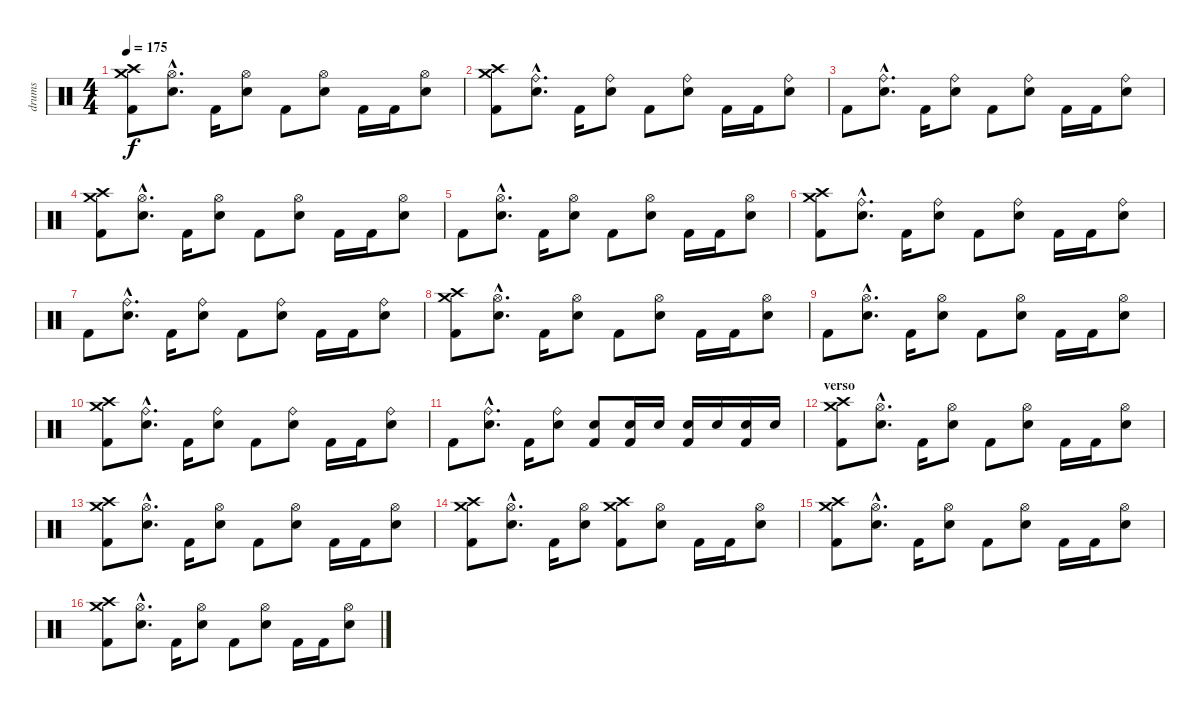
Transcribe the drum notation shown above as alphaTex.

\track ("drums" "drums") {instrument percussion}
\staff {score}
\articulation defaults
\ts (4 4)
\tempo 175
\clef neutral
\ks c
("Kick (hit) 2" "Crash high (hit)" "Crash medium (hit)").8{dy f} ("Hi-Hat (open)"{hac} "Electric Snare (hit)"{hac}).8{d} "Kick (hit) 2".16 ("Hi-Hat (open)" "Electric Snare (hit)").8 "Kick (hit) 2".8 ("Hi-Hat (open)" "Electric Snare (hit)").8 "Kick (hit) 2".16 "Kick (hit) 2".16 ("Hi-Hat (open)" "Electric Snare (hit)").8 |
("Kick (hit) 2" "Crash high (hit)" "Crash medium (hit)").8 ("Ride (bell)"{hac} "Electric Snare (hit)"{hac}).8{d} "Kick (hit) 2".16 ("Ride (bell)" "Electric Snare (hit)").8 "Kick (hit) 2".8 ("Ride (bell)" "Electric Snare (hit)").8 "Kick (hit) 2".16 "Kick (hit) 2".16 ("Ride (bell)" "Electric Snare (hit)").8 |
"Kick (hit) 2".8 ("Ride (bell)"{hac} "Electric Snare (hit)"{hac}).8{d} "Kick (hit) 2".16 ("Ride (bell)" "Electric Snare (hit)").8 "Kick (hit) 2".8 ("Ride (bell)" "Electric Snare (hit)").8 "Kick (hit) 2".16 "Kick (hit) 2".16 ("Ride (bell)" "Electric Snare (hit)").8 |
("Kick (hit) 2" "Crash high (hit)" "Crash medium (hit)").8 ("Hi-Hat (open)"{hac} "Electric Snare (hit)"{hac}).8{d} "Kick (hit) 2".16 ("Hi-Hat (open)" "Electric Snare (hit)").8 "Kick (hit) 2".8 ("Hi-Hat (open)" "Electric Snare (hit)").8 "Kick (hit) 2".16 "Kick (hit) 2".16 ("Hi-Hat (open)" "Electric Snare (hit)").8 |
"Kick (hit) 2".8 ("Hi-Hat (open)"{hac} "Electric Snare (hit)"{hac}).8{d} "Kick (hit) 2".16 ("Hi-Hat (open)" "Electric Snare (hit)").8 "Kick (hit) 2".8 ("Hi-Hat (open)" "Electric Snare (hit)").8 "Kick (hit) 2".16 "Kick (hit) 2".16 ("Hi-Hat (open)" "Electric Snare (hit)").8 |
("Kick (hit) 2" "Crash high (hit)" "Crash medium (hit)").8 ("Ride (bell)"{hac} "Electric Snare (hit)"{hac}).8{d} "Kick (hit) 2".16 ("Ride (bell)" "Electric Snare (hit)").8 "Kick (hit) 2".8 ("Ride (bell)" "Electric Snare (hit)").8 "Kick (hit) 2".16 "Kick (hit) 2".16 ("Ride (bell)" "Electric Snare (hit)").8 |
"Kick (hit) 2".8 ("Ride (bell)"{hac} "Electric Snare (hit)"{hac}).8{d} "Kick (hit) 2".16 ("Ride (bell)" "Electric Snare (hit)").8 "Kick (hit) 2".8 ("Ride (bell)" "Electric Snare (hit)").8 "Kick (hit) 2".16 "Kick (hit) 2".16 ("Ride (bell)" "Electric Snare (hit)").8 |
("Kick (hit) 2" "Crash high (hit)" "Crash medium (hit)").8 ("Hi-Hat (open)"{hac} "Electric Snare (hit)"{hac}).8{d} "Kick (hit) 2".16 ("Hi-Hat (open)" "Electric Snare (hit)").8 "Kick (hit) 2".8 ("Hi-Hat (open)" "Electric Snare (hit)").8 "Kick (hit) 2".16 "Kick (hit) 2".16 ("Hi-Hat (open)" "Electric Snare (hit)").8 |
"Kick (hit) 2".8 ("Hi-Hat (open)"{hac} "Electric Snare (hit)"{hac}).8{d} "Kick (hit) 2".16 ("Hi-Hat (open)" "Electric Snare (hit)").8 "Kick (hit) 2".8 ("Hi-Hat (open)" "Electric Snare (hit)").8 "Kick (hit) 2".16 "Kick (hit) 2".16 ("Hi-Hat (open)" "Electric Snare (hit)").8 |
("Kick (hit) 2" "Crash high (hit)" "Crash medium (hit)").8 ("Ride (bell)"{hac} "Electric Snare (hit)"{hac}).8{d} "Kick (hit) 2".16 ("Ride (bell)" "Electric Snare (hit)").8 "Kick (hit) 2".8 ("Ride (bell)" "Electric Snare (hit)").8 "Kick (hit) 2".16 "Kick (hit) 2".16 ("Ride (bell)" "Electric Snare (hit)").8 |
"Kick (hit) 2".8 ("Ride (bell)"{hac} "Electric Snare (hit)"{hac}).8{d} "Kick (hit) 2".16 ("Ride (bell)" "Electric Snare (hit)").8 ("Electric Snare (hit)" "Kick (hit) 2").8 ("Electric Snare (hit)" "Kick (hit) 2").16 "Electric Snare (hit)".16 ("Electric Snare (hit)" "Kick (hit) 2").16 "Electric Snare (hit)".16 ("Electric Snare (hit)" "Kick (hit) 2").16 "Electric Snare (hit)".16 |
\section ("" "verso")
("Kick (hit) 2" "Crash high (hit)" "Crash medium (hit)").8 ("Hi-Hat (open)"{hac} "Electric Snare (hit)"{hac}).8{d} "Kick (hit) 2".16 ("Hi-Hat (open)" "Electric Snare (hit)").8 "Kick (hit) 2".8 ("Hi-Hat (open)" "Electric Snare (hit)").8 "Kick (hit) 2".16 "Kick (hit) 2".16 ("Hi-Hat (open)" "Electric Snare (hit)").8 |
("Kick (hit) 2" "Crash high (hit)" "Crash medium (hit)").8 ("Hi-Hat (open)"{hac} "Electric Snare (hit)"{hac}).8{d} "Kick (hit) 2".16 ("Hi-Hat (open)" "Electric Snare (hit)").8 "Kick (hit) 2".8 ("Hi-Hat (open)" "Electric Snare (hit)").8 "Kick (hit) 2".16 "Kick (hit) 2".16 ("Hi-Hat (open)" "Electric Snare (hit)").8 |
("Kick (hit) 2" "Crash high (hit)" "Crash medium (hit)").8 ("Hi-Hat (open)"{hac} "Electric Snare (hit)"{hac}).8{d} "Kick (hit) 2".16 ("Hi-Hat (open)" "Electric Snare (hit)").8 ("Kick (hit) 2" "Crash medium (hit)" "Crash high (hit)").8 ("Hi-Hat (open)" "Electric Snare (hit)").8 "Kick (hit) 2".16 "Kick (hit) 2".16 ("Hi-Hat (open)" "Electric Snare (hit)").8 |
("Kick (hit) 2" "Crash high (hit)" "Crash medium (hit)").8 ("Hi-Hat (open)"{hac} "Electric Snare (hit)"{hac}).8{d} "Kick (hit) 2".16 ("Hi-Hat (open)" "Electric Snare (hit)").8 "Kick (hit) 2".8 ("Hi-Hat (open)" "Electric Snare (hit)").8 "Kick (hit) 2".16 "Kick (hit) 2".16 ("Hi-Hat (open)" "Electric Snare (hit)").8 |
("Kick (hit) 2" "Crash high (hit)" "Crash medium (hit)").8 ("Hi-Hat (open)"{hac} "Electric Snare (hit)"{hac}).8{d} "Kick (hit) 2".16 ("Hi-Hat (open)" "Electric Snare (hit)").8 "Kick (hit) 2".8 ("Hi-Hat (open)" "Electric Snare (hit)").8 "Kick (hit) 2".16 "Kick (hit) 2".16 ("Hi-Hat (open)" "Electric Snare (hit)").8
